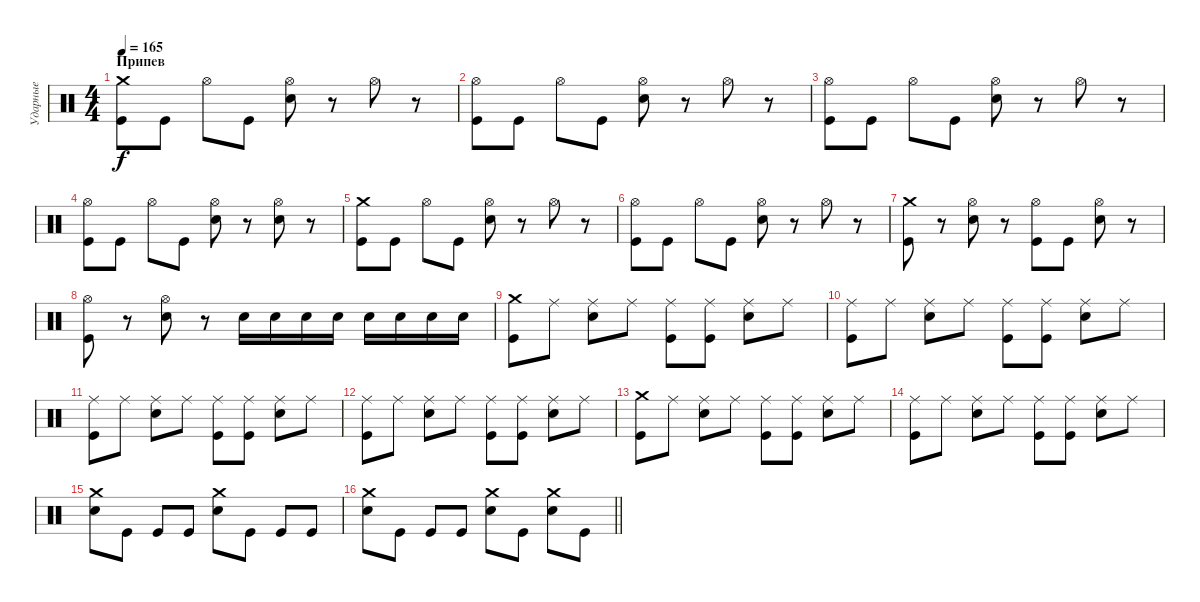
\track ("Ударные" "Ударные") {instrument percussion}
\staff {score}
\articulation defaults
\ts (4 4)
\section ("" "Припев")
\tempo 165
\clef neutral
\ks c
("Crash medium (hit)" "Kick (hit)").8{dy f} "Kick (hit)".8 "Hi-Hat (open)".8 "Kick (hit)".8 ("Hi-Hat (open)" "Electric Snare (hit)").8 r.8 "Hi-Hat (open)".8 r.8 |
("Hi-Hat (open)" "Kick (hit)").8 "Kick (hit)".8 "Hi-Hat (open)".8 "Kick (hit)".8 ("Hi-Hat (open)" "Electric Snare (hit)").8 r.8 "Hi-Hat (open)".8 r.8 |
("Hi-Hat (open)" "Kick (hit)").8 "Kick (hit)".8 "Hi-Hat (open)".8 "Kick (hit)".8 ("Hi-Hat (open)" "Electric Snare (hit)").8 r.8 "Hi-Hat (open)".8 r.8 |
("Hi-Hat (open)" "Kick (hit)").8 "Kick (hit)".8 "Hi-Hat (open)".8 "Kick (hit)".8 ("Hi-Hat (open)" "Electric Snare (hit)").8 r.8 ("Hi-Hat (open)" "Electric Snare (hit)").8 r.8 |
("Crash medium (hit)" "Kick (hit)").8 "Kick (hit)".8 "Hi-Hat (open)".8 "Kick (hit)".8 ("Hi-Hat (open)" "Electric Snare (hit)").8 r.8 "Hi-Hat (open)".8 r.8 |
("Hi-Hat (open)" "Kick (hit)").8 "Kick (hit)".8 "Hi-Hat (open)".8 "Kick (hit)".8 ("Hi-Hat (open)" "Electric Snare (hit)").8 r.8 "Hi-Hat (open)".8 r.8 |
("Crash medium (hit)" "Kick (hit)").8 r.8 ("Hi-Hat (open)" "Electric Snare (hit)").8 r.8 ("Hi-Hat (open)" "Kick (hit)").8 "Kick (hit)".8 ("Hi-Hat (open)" "Electric Snare (hit)").8 r.8 |
("Hi-Hat (open)" "Kick (hit)").8 r.8 ("Hi-Hat (open)" "Electric Snare (hit)").8 r.8 "Electric Snare (hit)".16 "Electric Snare (hit)".16 "Electric Snare (hit)".16 "Electric Snare (hit)".16 "Electric Snare (hit)".16 "Electric Snare (hit)".16 "Electric Snare (hit)".16 "Electric Snare (hit)".16 |
("Crash medium (hit)" "Kick (hit)").8 "Ride (middle)".8 ("Ride (middle)" "Electric Snare (hit)").8 "Ride (middle)".8 ("Ride (middle)" "Kick (hit)").8 ("Ride (middle)" "Kick (hit)").8 ("Ride (middle)" "Electric Snare (hit)").8 "Ride (middle)".8 |
("Ride (middle)" "Kick (hit)").8 "Ride (middle)".8 ("Ride (middle)" "Electric Snare (hit)").8 "Ride (middle)".8 ("Ride (middle)" "Kick (hit)").8 ("Ride (middle)" "Kick (hit)").8 ("Ride (middle)" "Electric Snare (hit)").8 "Ride (middle)".8 |
("Ride (middle)" "Kick (hit)").8 "Ride (middle)".8 ("Ride (middle)" "Electric Snare (hit)").8 "Ride (middle)".8 ("Ride (middle)" "Kick (hit)").8 ("Ride (middle)" "Kick (hit)").8 ("Ride (middle)" "Electric Snare (hit)").8 "Ride (middle)".8 |
("Ride (middle)" "Kick (hit)").8 "Ride (middle)".8 ("Ride (middle)" "Electric Snare (hit)").8 "Ride (middle)".8 ("Ride (middle)" "Kick (hit)").8 ("Ride (middle)" "Kick (hit)").8 ("Ride (middle)" "Electric Snare (hit)").8 "Ride (middle)".8 |
("Crash medium (hit)" "Kick (hit)").8 "Ride (middle)".8 ("Ride (middle)" "Electric Snare (hit)").8 "Ride (middle)".8 ("Ride (middle)" "Kick (hit)").8 ("Ride (middle)" "Kick (hit)").8 ("Ride (middle)" "Electric Snare (hit)").8 "Ride (middle)".8 |
("Ride (middle)" "Kick (hit)").8 "Ride (middle)".8 ("Ride (middle)" "Electric Snare (hit)").8 "Ride (middle)".8 ("Ride (middle)" "Kick (hit)").8 ("Ride (middle)" "Kick (hit)").8 ("Ride (middle)" "Electric Snare (hit)").8 "Ride (middle)".8 |
("Crash medium (hit)" "Electric Snare (hit)").8 "Kick (hit)".8 "Kick (hit)".8 "Kick (hit)".8 ("Crash medium (hit)" "Electric Snare (hit)").8 "Kick (hit)".8 "Kick (hit)".8 "Kick (hit)".8 |
\barLineRight lightlight
("Crash medium (hit)" "Electric Snare (hit)").8 "Kick (hit)".8 "Kick (hit)".8 "Kick (hit)".8 ("Crash medium (hit)" "Electric Snare (hit)").8 "Kick (hit)".8 ("Crash medium (hit)" "Electric Snare (hit)").8 "Kick (hit)".8
